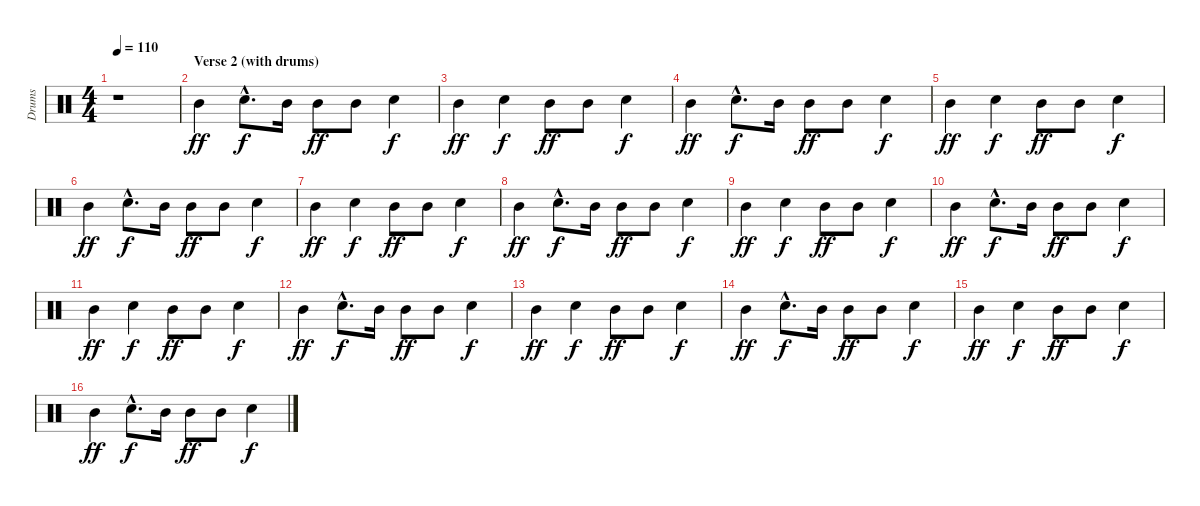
\track ("Drums" "Drums") {instrument percussion}
\staff {score}
\articulation defaults
\ts (4 4)
\tempo 110
\clef neutral
\ks c
r.1{dy ff} |
\section ("" "Verse 2 (with drums)")
"Mid Tom (hit)".4 "Electric Snare (hit)"{hac}.8{d dy f} "Mid Tom (hit)".16 "Mid Tom (hit)".8{dy ff} "Mid Tom (hit)".8 "Electric Snare (hit)".4{dy f} |
"Mid Tom (hit)".4{dy ff} "Electric Snare (hit)".4{dy f} "Mid Tom (hit)".8{dy ff} "Mid Tom (hit)".8 "Electric Snare (hit)".4{dy f} |
"Mid Tom (hit)".4{dy ff} "Electric Snare (hit)"{hac}.8{d dy f} "Mid Tom (hit)".16 "Mid Tom (hit)".8{dy ff} "Mid Tom (hit)".8 "Electric Snare (hit)".4{dy f} |
"Mid Tom (hit)".4{dy ff} "Electric Snare (hit)".4{dy f} "Mid Tom (hit)".8{dy ff} "Mid Tom (hit)".8 "Electric Snare (hit)".4{dy f} |
"Mid Tom (hit)".4{dy ff} "Electric Snare (hit)"{hac}.8{d dy f} "Mid Tom (hit)".16 "Mid Tom (hit)".8{dy ff} "Mid Tom (hit)".8 "Electric Snare (hit)".4{dy f} |
"Mid Tom (hit)".4{dy ff} "Electric Snare (hit)".4{dy f} "Mid Tom (hit)".8{dy ff} "Mid Tom (hit)".8 "Electric Snare (hit)".4{dy f} |
"Mid Tom (hit)".4{dy ff} "Electric Snare (hit)"{hac}.8{d dy f} "Mid Tom (hit)".16 "Mid Tom (hit)".8{dy ff} "Mid Tom (hit)".8 "Electric Snare (hit)".4{dy f} |
"Mid Tom (hit)".4{dy ff} "Electric Snare (hit)".4{dy f} "Mid Tom (hit)".8{dy ff} "Mid Tom (hit)".8 "Electric Snare (hit)".4{dy f} |
"Mid Tom (hit)".4{dy ff} "Electric Snare (hit)"{hac}.8{d dy f} "Mid Tom (hit)".16 "Mid Tom (hit)".8{dy ff} "Mid Tom (hit)".8 "Electric Snare (hit)".4{dy f} |
"Mid Tom (hit)".4{dy ff} "Electric Snare (hit)".4{dy f} "Mid Tom (hit)".8{dy ff} "Mid Tom (hit)".8 "Electric Snare (hit)".4{dy f} |
"Mid Tom (hit)".4{dy ff} "Electric Snare (hit)"{hac}.8{d dy f} "Mid Tom (hit)".16 "Mid Tom (hit)".8{dy ff} "Mid Tom (hit)".8 "Electric Snare (hit)".4{dy f} |
"Mid Tom (hit)".4{dy ff} "Electric Snare (hit)".4{dy f} "Mid Tom (hit)".8{dy ff} "Mid Tom (hit)".8 "Electric Snare (hit)".4{dy f} |
"Mid Tom (hit)".4{dy ff} "Electric Snare (hit)"{hac}.8{d dy f} "Mid Tom (hit)".16 "Mid Tom (hit)".8{dy ff} "Mid Tom (hit)".8 "Electric Snare (hit)".4{dy f} |
"Mid Tom (hit)".4{dy ff} "Electric Snare (hit)".4{dy f} "Mid Tom (hit)".8{dy ff} "Mid Tom (hit)".8 "Electric Snare (hit)".4{dy f} |
"Mid Tom (hit)".4{dy ff} "Electric Snare (hit)"{hac}.8{d dy f} "Mid Tom (hit)".16 "Mid Tom (hit)".8{dy ff} "Mid Tom (hit)".8 "Electric Snare (hit)".4{dy f}
